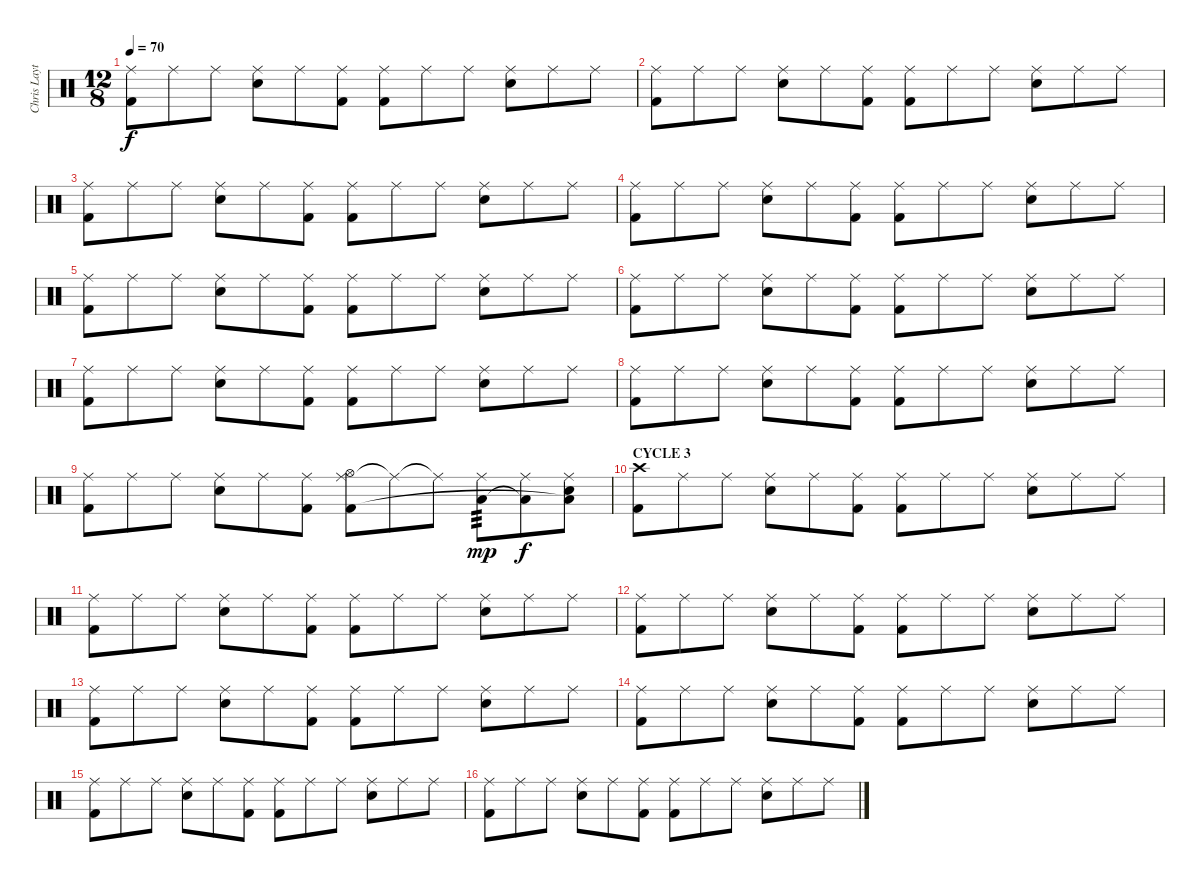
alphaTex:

\track ("Chris Layton" "Chris Layt") {instrument percussion}
\staff {score}
\articulation defaults
\ts (12 8)
\tempo 70
\clef neutral
\ks c
("Ride (middle)" "Kick (hit) 2").8{dy f} "Ride (middle)".8 "Ride (middle)".8 ("Ride (middle)" "Snare (hit) 2").8 "Ride (middle)".8 ("Ride (middle)" "Kick (hit) 2").8 ("Ride (middle)" "Kick (hit) 2").8 "Ride (middle)".8 "Ride (middle)".8 ("Ride (middle)" "Snare (hit) 2").8 "Ride (middle)".8 "Ride (middle)".8 |
("Ride (middle)" "Kick (hit) 2").8 "Ride (middle)".8 "Ride (middle)".8 ("Ride (middle)" "Snare (hit) 2").8 "Ride (middle)".8 ("Ride (middle)" "Kick (hit) 2").8 ("Ride (middle)" "Kick (hit) 2").8 "Ride (middle)".8 "Ride (middle)".8 ("Ride (middle)" "Snare (hit) 2").8 "Ride (middle)".8 "Ride (middle)".8 |
("Ride (middle)" "Kick (hit) 2").8 "Ride (middle)".8 "Ride (middle)".8 ("Ride (middle)" "Snare (hit) 2").8 "Ride (middle)".8 ("Ride (middle)" "Kick (hit) 2").8 ("Ride (middle)" "Kick (hit) 2").8 "Ride (middle)".8 "Ride (middle)".8 ("Ride (middle)" "Snare (hit) 2").8 "Ride (middle)".8 "Ride (middle)".8 |
("Ride (middle)" "Kick (hit) 2").8 "Ride (middle)".8 "Ride (middle)".8 ("Ride (middle)" "Snare (hit) 2").8 "Ride (middle)".8 ("Ride (middle)" "Kick (hit) 2").8 ("Ride (middle)" "Kick (hit) 2").8 "Ride (middle)".8 "Ride (middle)".8 ("Ride (middle)" "Snare (hit) 2").8 "Ride (middle)".8 "Ride (middle)".8 |
("Ride (middle)" "Kick (hit) 2").8 "Ride (middle)".8 "Ride (middle)".8 ("Ride (middle)" "Snare (hit) 2").8 "Ride (middle)".8 ("Ride (middle)" "Kick (hit) 2").8 ("Ride (middle)" "Kick (hit) 2").8 "Ride (middle)".8 "Ride (middle)".8 ("Ride (middle)" "Snare (hit) 2").8 "Ride (middle)".8 "Ride (middle)".8 |
("Ride (middle)" "Kick (hit) 2").8 "Ride (middle)".8 "Ride (middle)".8 ("Ride (middle)" "Snare (hit) 2").8 "Ride (middle)".8 ("Ride (middle)" "Kick (hit) 2").8 ("Ride (middle)" "Kick (hit) 2").8 "Ride (middle)".8 "Ride (middle)".8 ("Ride (middle)" "Snare (hit) 2").8 "Ride (middle)".8 "Ride (middle)".8 |
("Ride (middle)" "Kick (hit) 2").8 "Ride (middle)".8 "Ride (middle)".8 ("Ride (middle)" "Snare (hit) 2").8 "Ride (middle)".8 ("Ride (middle)" "Kick (hit) 2").8 ("Ride (middle)" "Kick (hit) 2").8 "Ride (middle)".8 "Ride (middle)".8 ("Ride (middle)" "Snare (hit) 2").8 "Ride (middle)".8 "Ride (middle)".8 |
("Ride (middle)" "Kick (hit) 2").8 "Ride (middle)".8 "Ride (middle)".8 ("Ride (middle)" "Snare (hit) 2").8 "Ride (middle)".8 ("Ride (middle)" "Kick (hit) 2").8 ("Ride (middle)" "Kick (hit) 2").8 "Ride (middle)".8 "Ride (middle)".8 ("Ride (middle)" "Snare (hit) 2").8 "Ride (middle)".8 "Ride (middle)".8 |
("Ride (middle)" "Kick (hit) 2").8 "Ride (middle)".8 "Ride (middle)".8 ("Ride (middle)" "Snare (hit) 2").8 "Ride (middle)".8 ("Ride (middle)" "Kick (hit) 2").8 ("Ride (middle)" "Hi-Hat (open)" "Kick (hit) 2").8 "Ride (middle)"{t}.8 "Ride (middle)"{t}.8 ("Ride (middle)" "Low Floor Tom (hit)").8{tp 3 dy mp} ("Ride (middle)" "Low Floor Tom (hit)"{t}).8{dy f} ("Ride (middle)" "Snare (hit) 2" "Low Floor Tom (hit)"{t}).8 |
\section ("" "CYCLE 3")
("Crash high (hit)" "Kick (hit) 2").8 "Ride (middle)".8 "Ride (middle)".8 ("Ride (middle)" "Snare (hit) 2").8 "Ride (middle)".8 ("Ride (middle)" "Kick (hit) 2").8 ("Ride (middle)" "Kick (hit) 2").8 "Ride (middle)".8 "Ride (middle)".8 ("Ride (middle)" "Snare (hit) 2").8 "Ride (middle)".8 "Ride (middle)".8 |
("Ride (middle)" "Kick (hit) 2").8 "Ride (middle)".8 "Ride (middle)".8 ("Ride (middle)" "Snare (hit) 2").8 "Ride (middle)".8 ("Ride (middle)" "Kick (hit) 2").8 ("Ride (middle)" "Kick (hit) 2").8 "Ride (middle)".8 "Ride (middle)".8 ("Ride (middle)" "Snare (hit) 2").8 "Ride (middle)".8 "Ride (middle)".8 |
("Ride (middle)" "Kick (hit) 2").8 "Ride (middle)".8 "Ride (middle)".8 ("Ride (middle)" "Snare (hit) 2").8 "Ride (middle)".8 ("Ride (middle)" "Kick (hit) 2").8 ("Ride (middle)" "Kick (hit) 2").8 "Ride (middle)".8 "Ride (middle)".8 ("Ride (middle)" "Snare (hit) 2").8 "Ride (middle)".8 "Ride (middle)".8 |
("Ride (middle)" "Kick (hit) 2").8 "Ride (middle)".8 "Ride (middle)".8 ("Ride (middle)" "Snare (hit) 2").8 "Ride (middle)".8 ("Ride (middle)" "Kick (hit) 2").8 ("Ride (middle)" "Kick (hit) 2").8 "Ride (middle)".8 "Ride (middle)".8 ("Ride (middle)" "Snare (hit) 2").8 "Ride (middle)".8 "Ride (middle)".8 |
("Ride (middle)" "Kick (hit) 2").8 "Ride (middle)".8 "Ride (middle)".8 ("Ride (middle)" "Snare (hit) 2").8 "Ride (middle)".8 ("Ride (middle)" "Kick (hit) 2").8 ("Ride (middle)" "Kick (hit) 2").8 "Ride (middle)".8 "Ride (middle)".8 ("Ride (middle)" "Snare (hit) 2").8 "Ride (middle)".8 "Ride (middle)".8 |
("Ride (middle)" "Kick (hit) 2").8 "Ride (middle)".8 "Ride (middle)".8 ("Ride (middle)" "Snare (hit) 2").8 "Ride (middle)".8 ("Ride (middle)" "Kick (hit) 2").8 ("Ride (middle)" "Kick (hit) 2").8 "Ride (middle)".8 "Ride (middle)".8 ("Ride (middle)" "Snare (hit) 2").8 "Ride (middle)".8 "Ride (middle)".8 |
("Ride (middle)" "Kick (hit) 2").8 "Ride (middle)".8 "Ride (middle)".8 ("Ride (middle)" "Snare (hit) 2").8 "Ride (middle)".8 ("Ride (middle)" "Kick (hit) 2").8 ("Ride (middle)" "Kick (hit) 2").8 "Ride (middle)".8 "Ride (middle)".8 ("Ride (middle)" "Snare (hit) 2").8 "Ride (middle)".8 "Ride (middle)".8
